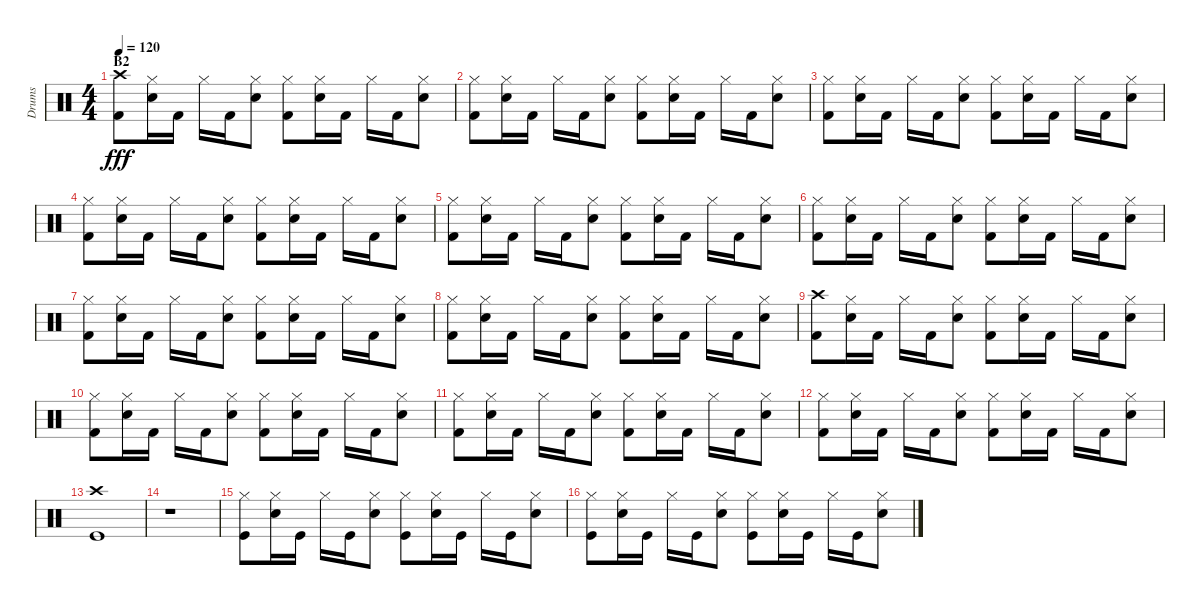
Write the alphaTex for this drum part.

\track ("Drums" "Drums") {instrument percussion}
\staff {score}
\articulation defaults
\ts (4 4)
\section ("" "B2")
\tempo 120
\clef neutral
\ks c
("Crash high (hit)" "Kick (hit) 2").8{dy fff} ("Hi-Hat (closed)" "Snare (hit) 2").16 "Kick (hit) 2".16 "Hi-Hat (closed)".16 "Kick (hit) 2".16 ("Hi-Hat (closed)" "Snare (hit) 2").8 ("Hi-Hat (closed)" "Kick (hit) 2").8 ("Hi-Hat (closed)" "Snare (hit) 2").16 "Kick (hit) 2".16 "Hi-Hat (closed)".16 "Kick (hit) 2".16 ("Hi-Hat (closed)" "Snare (hit) 2").8 |
("Hi-Hat (closed)" "Kick (hit) 2").8 ("Hi-Hat (closed)" "Snare (hit) 2").16 "Kick (hit) 2".16 "Hi-Hat (closed)".16 "Kick (hit) 2".16 ("Hi-Hat (closed)" "Snare (hit) 2").8 ("Hi-Hat (closed)" "Kick (hit) 2").8 ("Hi-Hat (closed)" "Snare (hit) 2").16 "Kick (hit) 2".16 "Hi-Hat (closed)".16 "Kick (hit) 2".16 ("Hi-Hat (closed)" "Snare (hit) 2").8 |
("Hi-Hat (closed)" "Kick (hit) 2").8 ("Hi-Hat (closed)" "Snare (hit) 2").16 "Kick (hit) 2".16 "Hi-Hat (closed)".16 "Kick (hit) 2".16 ("Hi-Hat (closed)" "Snare (hit) 2").8 ("Hi-Hat (closed)" "Kick (hit) 2").8 ("Hi-Hat (closed)" "Snare (hit) 2").16 "Kick (hit) 2".16 "Hi-Hat (closed)".16 "Kick (hit) 2".16 ("Hi-Hat (closed)" "Snare (hit) 2").8 |
("Hi-Hat (closed)" "Kick (hit) 2").8 ("Hi-Hat (closed)" "Snare (hit) 2").16 "Kick (hit) 2".16 "Hi-Hat (closed)".16 "Kick (hit) 2".16 ("Hi-Hat (closed)" "Snare (hit) 2").8 ("Hi-Hat (closed)" "Kick (hit) 2").8 ("Hi-Hat (closed)" "Snare (hit) 2").16 "Kick (hit) 2".16 "Hi-Hat (closed)".16 "Kick (hit) 2".16 ("Hi-Hat (closed)" "Snare (hit) 2").8 |
("Hi-Hat (closed)" "Kick (hit) 2").8 ("Hi-Hat (closed)" "Snare (hit) 2").16 "Kick (hit) 2".16 "Hi-Hat (closed)".16 "Kick (hit) 2".16 ("Hi-Hat (closed)" "Snare (hit) 2").8 ("Hi-Hat (closed)" "Kick (hit) 2").8 ("Hi-Hat (closed)" "Snare (hit) 2").16 "Kick (hit) 2".16 "Hi-Hat (closed)".16 "Kick (hit) 2".16 ("Hi-Hat (closed)" "Snare (hit) 2").8 |
("Hi-Hat (closed)" "Kick (hit) 2").8 ("Hi-Hat (closed)" "Snare (hit) 2").16 "Kick (hit) 2".16 "Hi-Hat (closed)".16 "Kick (hit) 2".16 ("Hi-Hat (closed)" "Snare (hit) 2").8 ("Hi-Hat (closed)" "Kick (hit) 2").8 ("Hi-Hat (closed)" "Snare (hit) 2").16 "Kick (hit) 2".16 "Hi-Hat (closed)".16 "Kick (hit) 2".16 ("Hi-Hat (closed)" "Snare (hit) 2").8 |
("Hi-Hat (closed)" "Kick (hit) 2").8 ("Hi-Hat (closed)" "Snare (hit) 2").16 "Kick (hit) 2".16 "Hi-Hat (closed)".16 "Kick (hit) 2".16 ("Hi-Hat (closed)" "Snare (hit) 2").8 ("Hi-Hat (closed)" "Kick (hit) 2").8 ("Hi-Hat (closed)" "Snare (hit) 2").16 "Kick (hit) 2".16 "Hi-Hat (closed)".16 "Kick (hit) 2".16 ("Hi-Hat (closed)" "Snare (hit) 2").8 |
("Hi-Hat (closed)" "Kick (hit) 2").8 ("Hi-Hat (closed)" "Snare (hit) 2").16 "Kick (hit) 2".16 "Hi-Hat (closed)".16 "Kick (hit) 2".16 ("Hi-Hat (closed)" "Snare (hit) 2").8 ("Hi-Hat (closed)" "Kick (hit) 2").8 ("Hi-Hat (closed)" "Snare (hit) 2").16 "Kick (hit) 2".16 "Hi-Hat (closed)".16 "Kick (hit) 2".16 ("Hi-Hat (closed)" "Snare (hit) 2").8 |
("Crash high (hit)" "Kick (hit) 2").8 ("Hi-Hat (closed)" "Snare (hit) 2").16 "Kick (hit) 2".16 "Hi-Hat (closed)".16 "Kick (hit) 2".16 ("Hi-Hat (closed)" "Snare (hit) 2").8 ("Hi-Hat (closed)" "Kick (hit) 2").8 ("Hi-Hat (closed)" "Snare (hit) 2").16 "Kick (hit) 2".16 "Hi-Hat (closed)".16 "Kick (hit) 2".16 ("Hi-Hat (closed)" "Snare (hit) 2").8 |
("Hi-Hat (closed)" "Kick (hit) 2").8 ("Hi-Hat (closed)" "Snare (hit) 2").16 "Kick (hit) 2".16 "Hi-Hat (closed)".16 "Kick (hit) 2".16 ("Hi-Hat (closed)" "Snare (hit) 2").8 ("Hi-Hat (closed)" "Kick (hit) 2").8 ("Hi-Hat (closed)" "Snare (hit) 2").16 "Kick (hit) 2".16 "Hi-Hat (closed)".16 "Kick (hit) 2".16 ("Hi-Hat (closed)" "Snare (hit) 2").8 |
("Hi-Hat (closed)" "Kick (hit) 2").8 ("Hi-Hat (closed)" "Snare (hit) 2").16 "Kick (hit) 2".16 "Hi-Hat (closed)".16 "Kick (hit) 2".16 ("Hi-Hat (closed)" "Snare (hit) 2").8 ("Hi-Hat (closed)" "Kick (hit) 2").8 ("Hi-Hat (closed)" "Snare (hit) 2").16 "Kick (hit) 2".16 "Hi-Hat (closed)".16 "Kick (hit) 2".16 ("Hi-Hat (closed)" "Snare (hit) 2").8 |
("Hi-Hat (closed)" "Kick (hit) 2").8 ("Hi-Hat (closed)" "Snare (hit) 2").16 "Kick (hit) 2".16 "Hi-Hat (closed)".16 "Kick (hit) 2".16 ("Hi-Hat (closed)" "Snare (hit) 2").8 ("Hi-Hat (closed)" "Kick (hit) 2").8 ("Hi-Hat (closed)" "Snare (hit) 2").16 "Kick (hit) 2".16 "Hi-Hat (closed)".16 "Kick (hit) 2".16 ("Hi-Hat (closed)" "Snare (hit) 2").8 |
("Crash high (hit)" "Kick (hit)").1 |
r.1 |
("Hi-Hat (closed)" "Kick (hit)").8 ("Hi-Hat (closed)" "Snare (hit) 2").16 "Kick (hit)".16 "Hi-Hat (closed)".16 "Kick (hit)".16 ("Hi-Hat (closed)" "Snare (hit) 2").8 ("Hi-Hat (closed)" "Kick (hit)").8 ("Hi-Hat (closed)" "Snare (hit) 2").16 "Kick (hit)".16 "Hi-Hat (closed)".16 "Kick (hit)".16 ("Hi-Hat (closed)" "Snare (hit) 2").8 |
("Hi-Hat (closed)" "Kick (hit)").8 ("Hi-Hat (closed)" "Snare (hit) 2").16 "Kick (hit)".16 "Hi-Hat (closed)".16 "Kick (hit)".16 ("Hi-Hat (closed)" "Snare (hit) 2").8 ("Hi-Hat (closed)" "Kick (hit)").8 ("Hi-Hat (closed)" "Snare (hit) 2").16 "Kick (hit)".16 "Hi-Hat (closed)".16 "Kick (hit)".16 ("Hi-Hat (closed)" "Snare (hit) 2").8
